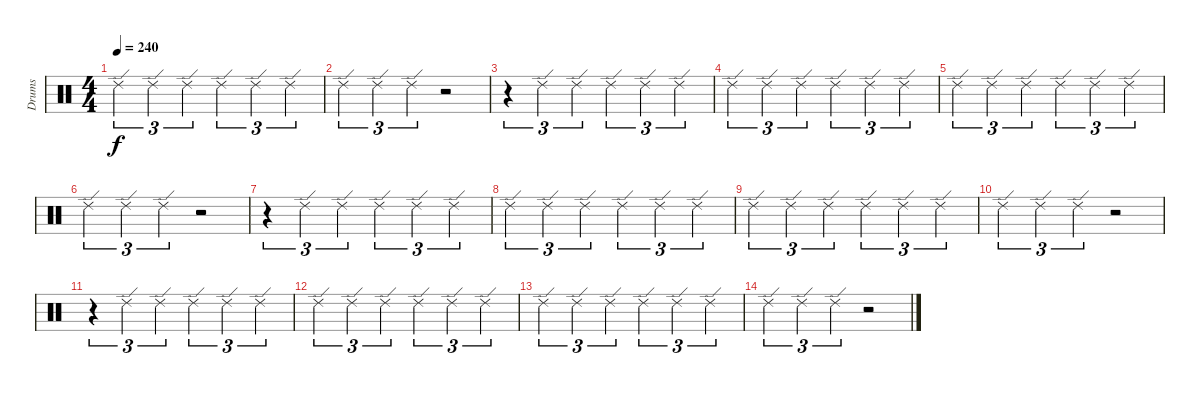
\track ("Drums" "Drums") {instrument percussion}
\staff {score}
\articulation defaults
\ts (4 4)
\tempo 240
\clef neutral
\ks c "Ride (edge) 2".4{tu (3 2) dy f} "Ride (edge) 2".4{tu (3 2)} "Ride (edge) 2".4{tu (3 2)} "Ride (edge) 2".4{tu (3 2)} "Ride (edge) 2".4{tu (3 2)} "Ride (edge) 2".4{tu (3 2)}
|
"Ride (edge) 2".4{tu (3 2)} "Ride (edge) 2".4{tu (3 2)} "Ride (edge) 2".4{tu (3 2)} r.2 |
r.4{tu (3 2)} "Ride (edge) 2".4{tu (3 2)} "Ride (edge) 2".4{tu (3 2)} "Ride (edge) 2".4{tu (3 2)} "Ride (edge) 2".4{tu (3 2)} "Ride (edge) 2".4{tu (3 2)} |
"Ride (edge) 2".4{tu (3 2)} "Ride (edge) 2".4{tu (3 2)} "Ride (edge) 2".4{tu (3 2)} "Ride (edge) 2".4{tu (3 2)} "Ride (edge) 2".4{tu (3 2)} "Ride (edge) 2".4{tu (3 2)} |
"Ride (edge) 2".4{tu (3 2)} "Ride (edge) 2".4{tu (3 2)} "Ride (edge) 2".4{tu (3 2)} "Ride (edge) 2".4{tu (3 2)} "Ride (edge) 2".4{tu (3 2)} "Ride (edge) 2".4{tu (3 2)} |
"Ride (edge) 2".4{tu (3 2)} "Ride (edge) 2".4{tu (3 2)} "Ride (edge) 2".4{tu (3 2)} r.2 |
r.4{tu (3 2)} "Ride (edge) 2".4{tu (3 2)} "Ride (edge) 2".4{tu (3 2)} "Ride (edge) 2".4{tu (3 2)} "Ride (edge) 2".4{tu (3 2)} "Ride (edge) 2".4{tu (3 2)} |
"Ride (edge) 2".4{tu (3 2)} "Ride (edge) 2".4{tu (3 2)} "Ride (edge) 2".4{tu (3 2)} "Ride (edge) 2".4{tu (3 2)} "Ride (edge) 2".4{tu (3 2)} "Ride (edge) 2".4{tu (3 2)} |
"Ride (edge) 2".4{tu (3 2)} "Ride (edge) 2".4{tu (3 2)} "Ride (edge) 2".4{tu (3 2)} "Ride (edge) 2".4{tu (3 2)} "Ride (edge) 2".4{tu (3 2)} "Ride (edge) 2".4{tu (3 2)} |
"Ride (edge) 2".4{tu (3 2)} "Ride (edge) 2".4{tu (3 2)} "Ride (edge) 2".4{tu (3 2)} r.2 |
r.4{tu (3 2)} "Ride (edge) 2".4{tu (3 2)} "Ride (edge) 2".4{tu (3 2)} "Ride (edge) 2".4{tu (3 2)} "Ride (edge) 2".4{tu (3 2)} "Ride (edge) 2".4{tu (3 2)} |
"Ride (edge) 2".4{tu (3 2)} "Ride (edge) 2".4{tu (3 2)} "Ride (edge) 2".4{tu (3 2)} "Ride (edge) 2".4{tu (3 2)} "Ride (edge) 2".4{tu (3 2)} "Ride (edge) 2".4{tu (3 2)} |
"Ride (edge) 2".4{tu (3 2)} "Ride (edge) 2".4{tu (3 2)} "Ride (edge) 2".4{tu (3 2)} "Ride (edge) 2".4{tu (3 2)} "Ride (edge) 2".4{tu (3 2)} "Ride (edge) 2".4{tu (3 2)} |
"Ride (edge) 2".4{tu (3 2)} "Ride (edge) 2".4{tu (3 2)} "Ride (edge) 2".4{tu (3 2)} r.2
